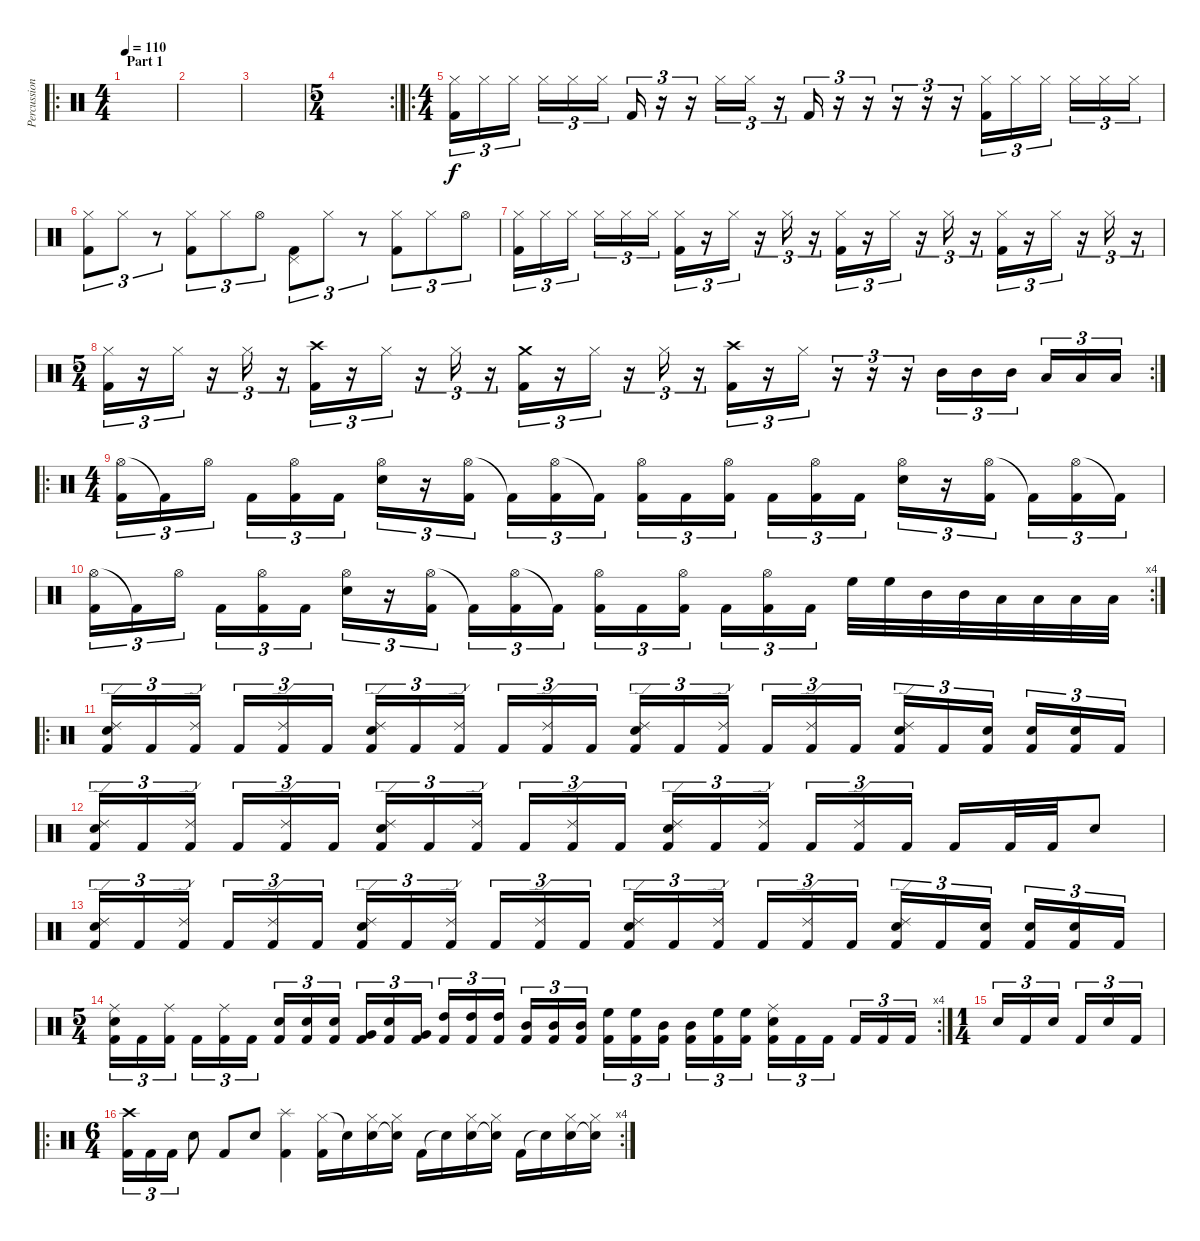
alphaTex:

\track ("Percussion" "Percussion") {instrument percussion}
\staff {score}
\articulation defaults
\ro
\ts (4 4)
\section ("" "Part 1")
\tempo 110
\clef neutral
\ks c
|
|
|
\rc 2
\ts (5 4)
|
\ro
\ts (4 4)
("Hi-Hat (closed)" "Kick (hit) 2").16{tu (3 2)} "Hi-Hat (closed)".16{tu (3 2)} "Hi-Hat (closed)".16{tu (3 2)} "Hi-Hat (closed)".16{tu (3 2)} "Hi-Hat (closed)".16{tu (3 2)} "Hi-Hat (closed)".16{tu (3 2)} "Kick (hit) 2".16{tu (3 2)} r.16{tu (3 2)} r.16{tu (3 2)} "Hi-Hat (closed)".16{tu (3 2)} "Hi-Hat (closed)".16{tu (3 2)} r.16{tu (3 2)} "Kick (hit) 2".16{tu (3 2)} r.16{tu (3 2)} r.16{tu (3 2)} r.16{tu (3 2)} r.16{tu (3 2)} r.16{tu (3 2)} ("Hi-Hat (closed)" "Kick (hit) 2").16{tu (3 2)} "Hi-Hat (closed)".16{tu (3 2)} "Hi-Hat (closed)".16{tu (3 2)} "Hi-Hat (closed)".16{tu (3 2)} "Hi-Hat (closed)".16{tu (3 2)} "Hi-Hat (closed)".16{tu (3 2)} |
("Hi-Hat (closed)" "Kick (hit) 2").8{tu (3 2)} "Hi-Hat (closed)".8{tu (3 2)} r.8{tu (3 2)} ("Hi-Hat (closed)" "Kick (hit) 2").8{tu (3 2)} "Hi-Hat (closed)".8{tu (3 2)} "Hi-Hat (open)".8{tu (3 2)} ("Pedal Hi-Hat (hit)" "Kick (hit) 2").8{tu (3 2)} "Hi-Hat (closed)".8{tu (3 2)} r.8{tu (3 2)} ("Hi-Hat (closed)" "Kick (hit) 2").8{tu (3 2)} "Hi-Hat (closed)".8{tu (3 2)} "Hi-Hat (open)".8{tu (3 2)} |
("Hi-Hat (closed)" "Kick (hit) 2").16{tu (3 2)} "Hi-Hat (closed)".16{tu (3 2)} "Hi-Hat (closed)".16{tu (3 2)} "Hi-Hat (closed)".16{tu (3 2)} "Hi-Hat (closed)".16{tu (3 2)} "Hi-Hat (closed)".16{tu (3 2)} ("Hi-Hat (closed)" "Kick (hit) 2").16{tu (3 2)} r.16{tu (3 2)} "Hi-Hat (closed)".16{tu (3 2)} r.16{tu (3 2)} "Hi-Hat (closed)".16{tu (3 2)} r.16{tu (3 2)} ("Hi-Hat (closed)" "Kick (hit) 2").16{tu (3 2)} r.16{tu (3 2)} "Hi-Hat (closed)".16{tu (3 2)} r.16{tu (3 2)} "Hi-Hat (closed)".16{tu (3 2)} r.16{tu (3 2)} ("Hi-Hat (closed)" "Kick (hit) 2").16{tu (3 2)} r.16{tu (3 2)} "Hi-Hat (closed)".16{tu (3 2)} r.16{tu (3 2)} "Hi-Hat (closed)".16{tu (3 2)} r.16{tu (3 2)} |
\rc 2
\ts (5 4)
("Hi-Hat (closed)" "Kick (hit) 2").16{tu (3 2)} r.16{tu (3 2)} "Hi-Hat (closed)".16{tu (3 2)} r.16{tu (3 2)} "Hi-Hat (closed)".16{tu (3 2)} r.16{tu (3 2)} ("Crash high (hit)" "Kick (hit) 2").16{tu (3 2)} r.16{tu (3 2)} "Hi-Hat (closed)".16{tu (3 2)} r.16{tu (3 2)} "Hi-Hat (closed)".16{tu (3 2)} r.16{tu (3 2)} ("Crash medium (hit)" "Kick (hit) 2").16{tu (3 2)} r.16{tu (3 2)} "Hi-Hat (closed)".16{tu (3 2)} r.16{tu (3 2)} "Hi-Hat (closed)".16{tu (3 2)} r.16{tu (3 2)} ("Crash high (hit)" "Kick (hit) 2").16{tu (3 2)} r.16{tu (3 2)} "Hi-Hat (closed)".16{tu (3 2)} r.16{tu (3 2)} r.16{tu (3 2)} r.16{tu (3 2)} "Mid Tom (hit)".16{tu (3 2)} "Mid Tom (hit)".16{tu (3 2)} "Mid Tom (hit)".16{tu (3 2)} "Low Tom (hit)".16{tu (3 2)} "Low Tom (hit)".16{tu (3 2)} "Low Tom (hit)".16{tu (3 2)} |
\ro
\ts (4 4)
("Hi-Hat (open)" "Kick (hit) 2").16{tu (3 2)} "Kick (hit) 2"{t}.16{tu (3 2)} "Hi-Hat (open)".16{tu (3 2)} "Kick (hit) 2".16{tu (3 2)} ("Hi-Hat (open)" "Kick (hit) 2").16{tu (3 2)} "Kick (hit) 2".16{tu (3 2)} ("Hi-Hat (open)" "Electric Snare (hit)").16{tu (3 2)} r.16{tu (3 2)} ("Hi-Hat (open)" "Kick (hit) 2").16{tu (3 2)} "Kick (hit) 2"{t}.16{tu (3 2)} ("Hi-Hat (open)" "Kick (hit) 2").16{tu (3 2)} "Kick (hit) 2"{t}.16{tu (3 2)} ("Hi-Hat (open)" "Kick (hit) 2").16{tu (3 2)} "Kick (hit) 2".16{tu (3 2)} ("Hi-Hat (open)" "Kick (hit) 2").16{tu (3 2)} "Kick (hit) 2".16{tu (3 2)} ("Hi-Hat (open)" "Kick (hit) 2").16{tu (3 2)} "Kick (hit) 2".16{tu (3 2)} ("Hi-Hat (open)" "Electric Snare (hit)").16{tu (3 2)} r.16{tu (3 2)} ("Hi-Hat (open)" "Kick (hit) 2").16{tu (3 2)} "Kick (hit) 2"{t}.16{tu (3 2)} ("Hi-Hat (open)" "Kick (hit) 2").16{tu (3 2)} "Kick (hit) 2"{t}.16{tu (3 2)} |
\rc 4
("Hi-Hat (open)" "Kick (hit) 2").16{tu (3 2)} "Kick (hit) 2"{t}.16{tu (3 2)} "Hi-Hat (open)".16{tu (3 2)} "Kick (hit) 2".16{tu (3 2)} ("Hi-Hat (open)" "Kick (hit) 2").16{tu (3 2)} "Kick (hit) 2".16{tu (3 2)} ("Hi-Hat (open)" "Electric Snare (hit)").16{tu (3 2)} r.16{tu (3 2)} ("Hi-Hat (open)" "Kick (hit) 2").16{tu (3 2)} "Kick (hit) 2"{t}.16{tu (3 2)} ("Hi-Hat (open)" "Kick (hit) 2").16{tu (3 2)} "Kick (hit) 2"{t}.16{tu (3 2)} ("Hi-Hat (open)" "Kick (hit) 2").16{tu (3 2)} "Kick (hit) 2".16{tu (3 2)} ("Hi-Hat (open)" "Kick (hit) 2").16{tu (3 2)} "Kick (hit) 2".16{tu (3 2)} ("Hi-Hat (open)" "Kick (hit) 2").16{tu (3 2)} "Kick (hit) 2".16{tu (3 2)} "High Floor Tom (hit)".32 "High Floor Tom (hit)".32 "Mid Tom (hit)".32 "Mid Tom (hit)".32 "Low Tom (hit)".32 "Low Tom (hit)".32 "Low Floor Tom (hit)".32 "Low Floor Tom (hit)".32 |
\ro
("Ride (edge) 2" "Snare (hit) 2" "Kick (hit) 2").16{tu (3 2)} "Kick (hit) 2".16{tu (3 2)} ("Ride (edge) 2" "Kick (hit) 2").16{tu (3 2)} "Kick (hit) 2".16{tu (3 2)} ("Ride (edge) 2" "Kick (hit) 2").16{tu (3 2)} "Kick (hit) 2".16{tu (3 2)} ("Ride (edge) 2" "Snare (hit) 2" "Kick (hit) 2").16{tu (3 2)} "Kick (hit) 2".16{tu (3 2)} ("Ride (edge) 2" "Kick (hit) 2").16{tu (3 2)} "Kick (hit) 2".16{tu (3 2)} ("Ride (edge) 2" "Kick (hit) 2").16{tu (3 2)} "Kick (hit) 2".16{tu (3 2)} ("Ride (edge) 2" "Snare (hit) 2" "Kick (hit) 2").16{tu (3 2)} "Kick (hit) 2".16{tu (3 2)} ("Ride (edge) 2" "Kick (hit) 2").16{tu (3 2)} "Kick (hit) 2".16{tu (3 2)} ("Ride (edge) 2" "Kick (hit) 2").16{tu (3 2)} "Kick (hit) 2".16{tu (3 2)} ("Ride (edge) 2" "Snare (hit) 2" "Kick (hit) 2").16{tu (3 2)} "Kick (hit) 2".16{tu (3 2)} ("Snare (hit) 2" "Kick (hit) 2").16{tu (3 2)} ("Snare (hit) 2" "Kick (hit) 2").16{tu (3 2)} ("Snare (hit) 2" "Kick (hit) 2").16{tu (3 2)} "Kick (hit) 2".16{tu (3 2)} |
("Ride (edge) 2" "Snare (hit) 2" "Kick (hit) 2").16{tu (3 2)} "Kick (hit) 2".16{tu (3 2)} ("Ride (edge) 2" "Kick (hit) 2").16{tu (3 2)} "Kick (hit) 2".16{tu (3 2)} ("Ride (edge) 2" "Kick (hit) 2").16{tu (3 2)} "Kick (hit) 2".16{tu (3 2)} ("Ride (edge) 2" "Snare (hit) 2" "Kick (hit) 2").16{tu (3 2)} "Kick (hit) 2".16{tu (3 2)} ("Ride (edge) 2" "Kick (hit) 2").16{tu (3 2)} "Kick (hit) 2".16{tu (3 2)} ("Ride (edge) 2" "Kick (hit) 2").16{tu (3 2)} "Kick (hit) 2".16{tu (3 2)} ("Ride (edge) 2" "Snare (hit) 2" "Kick (hit) 2").16{tu (3 2)} "Kick (hit) 2".16{tu (3 2)} ("Ride (edge) 2" "Kick (hit) 2").16{tu (3 2)} "Kick (hit) 2".16{tu (3 2)} ("Ride (edge) 2" "Kick (hit) 2").16{tu (3 2)} "Kick (hit) 2".16{tu (3 2)} "Kick (hit) 2".16 "Kick (hit) 2".32 "Kick (hit) 2".32 "Snare (hit) 2".8 |
("Ride (edge) 2" "Snare (hit) 2" "Kick (hit) 2").16{tu (3 2)} "Kick (hit) 2".16{tu (3 2)} ("Ride (edge) 2" "Kick (hit) 2").16{tu (3 2)} "Kick (hit) 2".16{tu (3 2)} ("Ride (edge) 2" "Kick (hit) 2").16{tu (3 2)} "Kick (hit) 2".16{tu (3 2)} ("Ride (edge) 2" "Snare (hit) 2" "Kick (hit) 2").16{tu (3 2)} "Kick (hit) 2".16{tu (3 2)} ("Ride (edge) 2" "Kick (hit) 2").16{tu (3 2)} "Kick (hit) 2".16{tu (3 2)} ("Ride (edge) 2" "Kick (hit) 2").16{tu (3 2)} "Kick (hit) 2".16{tu (3 2)} ("Ride (edge) 2" "Snare (hit) 2" "Kick (hit) 2").16{tu (3 2)} "Kick (hit) 2".16{tu (3 2)} ("Ride (edge) 2" "Kick (hit) 2").16{tu (3 2)} "Kick (hit) 2".16{tu (3 2)} ("Ride (edge) 2" "Kick (hit) 2").16{tu (3 2)} "Kick (hit) 2".16{tu (3 2)} ("Ride (edge) 2" "Snare (hit) 2" "Kick (hit) 2").16{tu (3 2)} "Kick (hit) 2".16{tu (3 2)} ("Snare (hit) 2" "Kick (hit) 2").16{tu (3 2)} ("Snare (hit) 2" "Kick (hit) 2").16{tu (3 2)} ("Snare (hit) 2" "Kick (hit) 2").16{tu (3 2)} "Kick (hit) 2".16{tu (3 2)} |
\rc 4
\ts (5 4)
("Snare (hit) 2" "Ride (middle)" "Kick (hit) 2").16{tu (3 2)} "Kick (hit) 2".16{tu (3 2)} ("Ride (middle)" "Kick (hit) 2").16{tu (3 2)} "Kick (hit) 2".16{tu (3 2)} ("Ride (middle)" "Kick (hit) 2").16{tu (3 2)} "Kick (hit) 2".16{tu (3 2)} ("Snare (hit) 2" "Kick (hit) 2").16{tu (3 2)} ("Snare (hit) 2" "Kick (hit) 2").16{tu (3 2)} ("Snare (hit) 2" "Kick (hit) 2").16{tu (3 2)} ("Very Low Tom (hit)" "Kick (hit) 2").16{tu (3 2)} ("Snare (hit) 2" "Kick (hit) 2").16{tu (3 2)} ("Very Low Tom (hit)" "Kick (hit) 2").16{tu (3 2)} ("High Tom (hit)" "Kick (hit) 2").16{tu (3 2)} ("High Tom (hit)" "Kick (hit) 2").16{tu (3 2)} ("High Tom (hit)" "Kick (hit) 2").16{tu (3 2)} ("Mid Tom (hit)" "Kick (hit) 2").16{tu (3 2)} ("Mid Tom (hit)" "Kick (hit) 2").16{tu (3 2)} ("Mid Tom (hit)" "Kick (hit) 2").16{tu (3 2)} ("High Floor Tom (hit)" "Kick (hit) 2").16{tu (3 2)} ("High Floor Tom (hit)" "Kick (hit) 2").16{tu (3 2)} ("Mid Tom (hit)" "Kick (hit) 2").16{tu (3 2)} ("Mid Tom (hit)" "Kick (hit) 2").16{tu (3 2)} ("High Floor Tom (hit)" "Kick (hit) 2").16{tu (3 2)} ("High Floor Tom (hit)" "Kick (hit) 2").16{tu (3 2)} ("Ride (middle)" "Snare (hit) 2" "Kick (hit) 2").16{tu (3 2)} "Kick (hit) 2".16{tu (3 2)} "Kick (hit) 2".16{tu (3 2)} "Kick (hit) 2".16{tu (3 2)} "Kick (hit) 2".16{tu (3 2)} "Kick (hit) 2".16{tu (3 2)} |
\ts (1 4)
"Snare (hit) 2".16{tu (3 2)} "Kick (hit) 2".16{tu (3 2)} "Snare (hit) 2".16{tu (3 2)} "Kick (hit) 2".16{tu (3 2)} "Snare (hit) 2".16{tu (3 2)} "Kick (hit) 2".16{tu (3 2)} |
\ro
\rc 4
\ts (6 4)
("Crash high (hit)" "Kick (hit) 2").16{tu (3 2)} "Kick (hit) 2".16{tu (3 2)} "Kick (hit) 2".16{tu (3 2)} "Snare (hit) 2".8 "Kick (hit) 2".8 "Snare (hit) 2".8 ("Splash (hit)" "Kick (hit) 2").4 ("Hi-Hat (closed)" "Kick (hit) 2").16 "Snare (hit)"{t}.16 ("Hi-Hat (closed)" "Snare (hit) 2").16 ("Hi-Hat (closed)" "Snare (hit)"{t}).16 "Kick (hit) 2".16 "Snare (hit)"{t}.16 ("Hi-Hat (closed)" "Snare (hit) 2").16 ("Hi-Hat (closed)" "Snare (hit)"{t}).16 "Kick (hit) 2".16 "Snare (hit)"{t}.16 ("Hi-Hat (closed)" "Snare (hit) 2").16 ("Hi-Hat (closed)" "Snare (hit)"{t}).16
